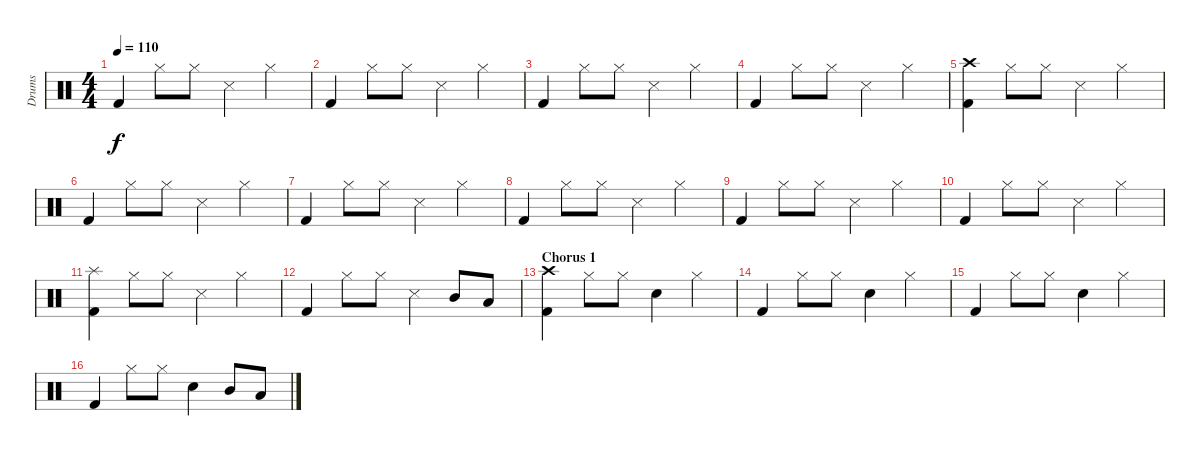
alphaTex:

\track ("Drums" "Drums") {instrument percussion}
\staff {score}
\articulation defaults
\ts (4 4)
\tempo 110
\clef neutral
\ks c "Kick (hit) 2".4{dy f} "Hi-Hat (closed)".8 "Hi-Hat (closed)".8 "Snare (side stick) 3".4 "Hi-Hat (closed)".4
|
"Kick (hit) 2".4 "Hi-Hat (closed)".8 "Hi-Hat (closed)".8 "Snare (side stick) 3".4 "Hi-Hat (closed)".4 |
"Kick (hit) 2".4 "Hi-Hat (closed)".8 "Hi-Hat (closed)".8 "Snare (side stick) 3".4 "Hi-Hat (closed)".4 |
"Kick (hit) 2".4 "Hi-Hat (closed)".8 "Hi-Hat (closed)".8 "Snare (side stick) 3".4 "Hi-Hat (closed)".4 |
("Kick (hit) 2" "Crash high (hit)").4 "Hi-Hat (closed)".8 "Hi-Hat (closed)".8 "Snare (side stick) 3".4 "Hi-Hat (closed)".4 |
"Kick (hit) 2".4 "Hi-Hat (closed)".8 "Hi-Hat (closed)".8 "Snare (side stick) 3".4 "Hi-Hat (closed)".4 |
"Kick (hit) 2".4 "Hi-Hat (closed)".8 "Hi-Hat (closed)".8 "Snare (side stick) 3".4 "Hi-Hat (closed)".4 |
"Kick (hit) 2".4 "Hi-Hat (closed)".8 "Hi-Hat (closed)".8 "Snare (side stick) 3".4 "Hi-Hat (closed)".4 |
"Kick (hit) 2".4 "Hi-Hat (closed)".8 "Hi-Hat (closed)".8 "Snare (side stick) 3".4 "Hi-Hat (closed)".4 |
"Kick (hit) 2".4 "Hi-Hat (closed)".8 "Hi-Hat (closed)".8 "Snare (side stick) 3".4 "Hi-Hat (closed)".4 |
("Kick (hit) 2" "Splash (hit)").4 "Hi-Hat (closed)".8 "Hi-Hat (closed)".8 "Snare (side stick) 3".4 "Hi-Hat (closed)".4 |
"Kick (hit) 2".4 "Hi-Hat (closed)".8 "Hi-Hat (closed)".8 "Snare (side stick) 3".4 "Mid Tom (hit)".8 "Low Tom (hit)".8 |
\section ("" "Chorus 1")
("Kick (hit) 2" "Crash high (hit)").4 "Hi-Hat (closed)".8 "Hi-Hat (closed)".8 "Snare (hit) 2".4 "Hi-Hat (closed)".4 |
"Kick (hit) 2".4 "Hi-Hat (closed)".8 "Hi-Hat (closed)".8 "Snare (hit) 2".4 "Hi-Hat (closed)".4 |
"Kick (hit) 2".4 "Hi-Hat (closed)".8 "Hi-Hat (closed)".8 "Snare (hit) 2".4 "Hi-Hat (closed)".4 |
"Kick (hit) 2".4 "Hi-Hat (closed)".8 "Hi-Hat (closed)".8 "Snare (hit) 2".4 "Mid Tom (hit)".8 "Low Tom (hit)".8
